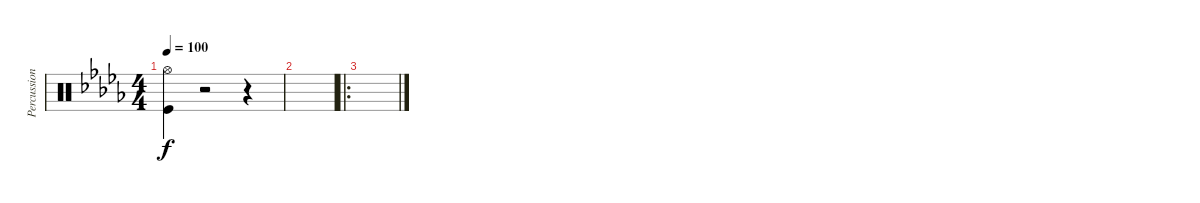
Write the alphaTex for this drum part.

\track ("Percussion( mike mamillin)" "Percussion") {instrument percussion}
\staff {score}
\articulation defaults
\ts (4 4)
\tempo 100
\clef neutral
\ks db
("Hi-Hat (open)" "Kick (hit)").4{dy f} r.2 r.4 |
|
\ro
